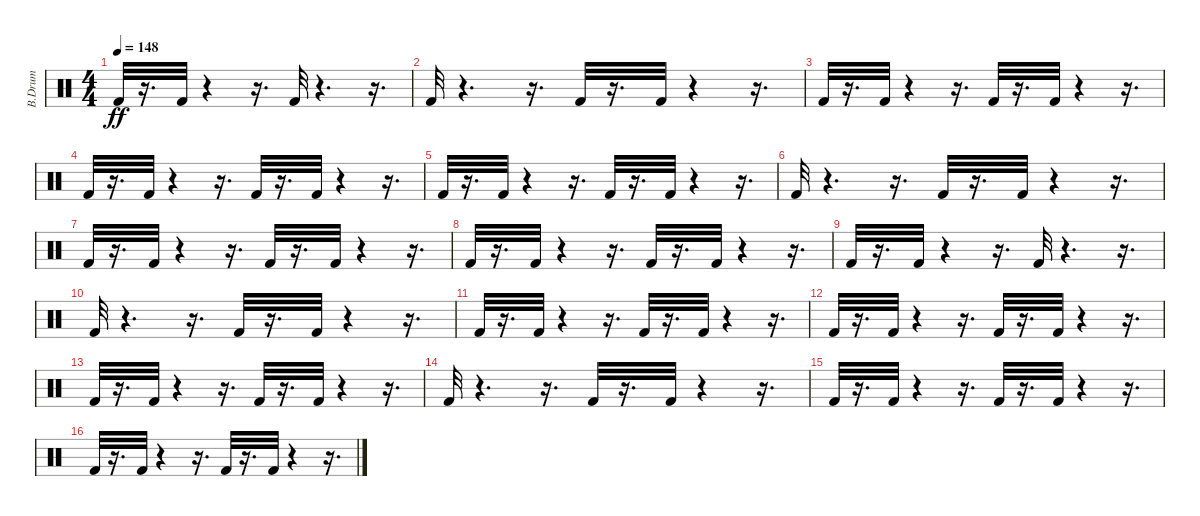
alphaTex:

\track ("B.Drum                              " "B.Drum    ") {instrument percussion}
\staff {score}
\articulation defaults
\ts (4 4)
\tempo 148
\clef neutral
\ks c "Kick (hit) 2".32{dy ff}
r.16{d} "Kick (hit) 2".32 r.4 r.16{d} "Kick (hit) 2".32 r.4{d} r.16{d} |
"Kick (hit) 2".32 r.4{d} r.16{d} "Kick (hit) 2".32 r.16{d} "Kick (hit) 2".32 r.4 r.16{d} |
"Kick (hit) 2".32 r.16{d} "Kick (hit) 2".32 r.4 r.16{d} "Kick (hit) 2".32 r.16{d} "Kick (hit) 2".32 r.4 r.16{d} |
"Kick (hit) 2".32 r.16{d} "Kick (hit) 2".32 r.4 r.16{d} "Kick (hit) 2".32 r.16{d} "Kick (hit) 2".32 r.4 r.16{d} |
"Kick (hit) 2".32 r.16{d} "Kick (hit) 2".32 r.4 r.16{d} "Kick (hit) 2".32 r.16{d} "Kick (hit) 2".32 r.4 r.16{d} |
"Kick (hit) 2".32 r.4{d} r.16{d} "Kick (hit) 2".32 r.16{d} "Kick (hit) 2".32 r.4 r.16{d} |
"Kick (hit) 2".32 r.16{d} "Kick (hit) 2".32 r.4 r.16{d} "Kick (hit) 2".32 r.16{d} "Kick (hit) 2".32 r.4 r.16{d} |
"Kick (hit) 2".32 r.16{d} "Kick (hit) 2".32 r.4 r.16{d} "Kick (hit) 2".32 r.16{d} "Kick (hit) 2".32 r.4 r.16{d} |
"Kick (hit) 2".32 r.16{d} "Kick (hit) 2".32 r.4 r.16{d} "Kick (hit) 2".32 r.4{d} r.16{d} |
"Kick (hit) 2".32 r.4{d} r.16{d} "Kick (hit) 2".32 r.16{d} "Kick (hit) 2".32 r.4 r.16{d} |
"Kick (hit) 2".32 r.16{d} "Kick (hit) 2".32 r.4 r.16{d} "Kick (hit) 2".32 r.16{d} "Kick (hit) 2".32 r.4 r.16{d} |
"Kick (hit) 2".32 r.16{d} "Kick (hit) 2".32 r.4 r.16{d} "Kick (hit) 2".32 r.16{d} "Kick (hit) 2".32 r.4 r.16{d} |
"Kick (hit) 2".32 r.16{d} "Kick (hit) 2".32 r.4 r.16{d} "Kick (hit) 2".32 r.16{d} "Kick (hit) 2".32 r.4 r.16{d} |
"Kick (hit) 2".32 r.4{d} r.16{d} "Kick (hit) 2".32 r.16{d} "Kick (hit) 2".32 r.4 r.16{d} |
"Kick (hit) 2".32 r.16{d} "Kick (hit) 2".32 r.4 r.16{d} "Kick (hit) 2".32 r.16{d} "Kick (hit) 2".32 r.4 r.16{d} |
"Kick (hit) 2".32 r.16{d} "Kick (hit) 2".32 r.4 r.16{d} "Kick (hit) 2".32 r.16{d} "Kick (hit) 2".32 r.4 r.16{d}
